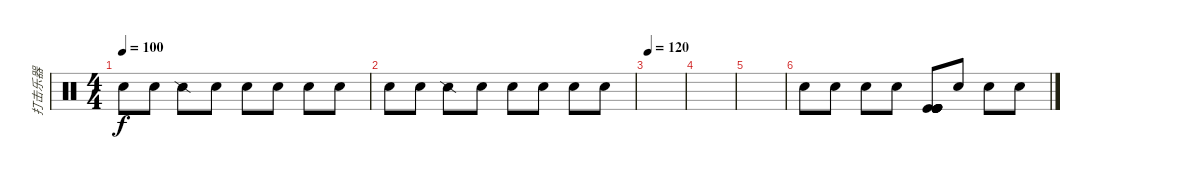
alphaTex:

\track ("打击乐器" "打击乐器") {instrument percussion}
\staff {score}
\articulation defaults
\ts (4 4)
\tempo 100
\clef neutral
\ks c "Snare (hit)".8{dy f} "Snare (hit)".8 "Snare (side stick) 2".8 "Snare (hit)".8 "Snare (hit)".8 "Snare (hit)".8 "Snare (hit)".8 "Snare (hit)".8
|
"Snare (hit)".8 "Snare (hit)".8 "Snare (side stick) 2".8 "Snare (hit)".8 "Snare (hit)".8 "Snare (hit)".8 "Snare (hit)".8 "Snare (hit)".8 |
\tempo 120
|
|
|
"Snare (hit)".8 "Snare (hit)".8 "Snare (hit)".8 "Snare (hit)".8 ("Kick (hit)" "Kick (hit)" "Kick (hit)" "Kick (hit)" "Kick (hit)" "Kick (hit)").8 "Snare (hit)".8 "Snare (hit)".8 "Snare (hit)".8
